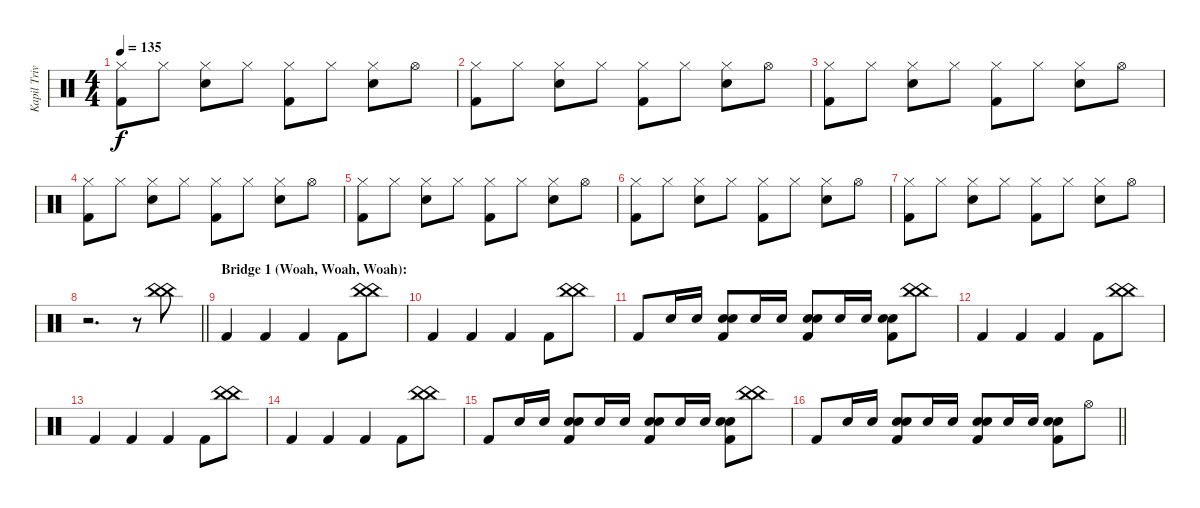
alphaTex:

\track ("Kapil Trivedi (Percussion)" "Kapil Triv") {instrument percussion}
\staff {score}
\articulation defaults
\ts (4 4)
\tempo 135
\clef neutral
\ks c
("Hi-Hat (closed)" "Kick (hit) 2").8{dy f} "Hi-Hat (closed)".8 ("Hi-Hat (closed)" "Snare (hit) 2").8 "Hi-Hat (closed)".8 ("Hi-Hat (closed)" "Kick (hit) 2").8 "Hi-Hat (closed)".8 ("Hi-Hat (closed)" "Snare (hit) 2").8 "Hi-Hat (open)".8 |
("Hi-Hat (closed)" "Kick (hit) 2").8 "Hi-Hat (closed)".8 ("Hi-Hat (closed)" "Snare (hit) 2").8 "Hi-Hat (closed)".8 ("Hi-Hat (closed)" "Kick (hit) 2").8 "Hi-Hat (closed)".8 ("Hi-Hat (closed)" "Snare (hit) 2").8 "Hi-Hat (open)".8 |
("Hi-Hat (closed)" "Kick (hit) 2").8 "Hi-Hat (closed)".8 ("Hi-Hat (closed)" "Snare (hit) 2").8 "Hi-Hat (closed)".8 ("Hi-Hat (closed)" "Kick (hit) 2").8 "Hi-Hat (closed)".8 ("Hi-Hat (closed)" "Snare (hit) 2").8 "Hi-Hat (open)".8 |
("Hi-Hat (closed)" "Kick (hit) 2").8 "Hi-Hat (closed)".8 ("Hi-Hat (closed)" "Snare (hit) 2").8 "Hi-Hat (closed)".8 ("Hi-Hat (closed)" "Kick (hit) 2").8 "Hi-Hat (closed)".8 ("Hi-Hat (closed)" "Snare (hit) 2").8 "Hi-Hat (open)".8 |
("Hi-Hat (closed)" "Kick (hit) 2").8 "Hi-Hat (closed)".8 ("Hi-Hat (closed)" "Snare (hit) 2").8 "Hi-Hat (closed)".8 ("Hi-Hat (closed)" "Kick (hit) 2").8 "Hi-Hat (closed)".8 ("Hi-Hat (closed)" "Snare (hit) 2").8 "Hi-Hat (open)".8 |
("Hi-Hat (closed)" "Kick (hit) 2").8 "Hi-Hat (closed)".8 ("Hi-Hat (closed)" "Snare (hit) 2").8 "Hi-Hat (closed)".8 ("Hi-Hat (closed)" "Kick (hit) 2").8 "Hi-Hat (closed)".8 ("Hi-Hat (closed)" "Snare (hit) 2").8 "Hi-Hat (open)".8 |
("Hi-Hat (closed)" "Kick (hit) 2").8 "Hi-Hat (closed)".8 ("Hi-Hat (closed)" "Snare (hit) 2").8 "Hi-Hat (closed)".8 ("Hi-Hat (closed)" "Kick (hit) 2").8 "Hi-Hat (closed)".8 ("Hi-Hat (closed)" "Snare (hit) 2").8 "Hi-Hat (open)".8 |
\barLineRight lightlight
r.2{d} r.8 ("China (hit)" "China (hit)").8 |
\section ("" "Bridge 1 (Woah, Woah, Woah): ")
"Kick (hit) 2".4 "Kick (hit) 2".4 "Kick (hit) 2".4 "Kick (hit) 2".8 ("China (hit)" "China (hit)").8 |
"Kick (hit) 2".4 "Kick (hit) 2".4 "Kick (hit) 2".4 "Kick (hit) 2".8 ("China (hit)" "China (hit)").8 |
"Kick (hit) 2".8 "Snare (hit) 2".16 "Snare (hit) 2".16 ("Snare (hit) 2" "Snare (hit) 2" "Kick (hit) 2").8 "Snare (hit) 2".16 "Snare (hit) 2".16 ("Snare (hit) 2" "Snare (hit) 2" "Kick (hit) 2").8 "Snare (hit) 2".16 "Snare (hit) 2".16 ("Snare (hit) 2" "Snare (hit) 2" "Kick (hit) 2").8 ("China (hit)" "China (hit)").8 |
"Kick (hit) 2".4 "Kick (hit) 2".4 "Kick (hit) 2".4 "Kick (hit) 2".8 ("China (hit)" "China (hit)").8 |
"Kick (hit) 2".4 "Kick (hit) 2".4 "Kick (hit) 2".4 "Kick (hit) 2".8 ("China (hit)" "China (hit)").8 |
"Kick (hit) 2".4 "Kick (hit) 2".4 "Kick (hit) 2".4 "Kick (hit) 2".8 ("China (hit)" "China (hit)").8 |
"Kick (hit) 2".8 "Snare (hit) 2".16 "Snare (hit) 2".16 ("Snare (hit) 2" "Snare (hit) 2" "Kick (hit) 2").8 "Snare (hit) 2".16 "Snare (hit) 2".16 ("Snare (hit) 2" "Snare (hit) 2" "Kick (hit) 2").8 "Snare (hit) 2".16 "Snare (hit) 2".16 ("Snare (hit) 2" "Snare (hit) 2" "Kick (hit) 2").8 ("China (hit)" "China (hit)").8 |
\barLineRight lightlight "Kick (hit) 2".8 "Snare (hit) 2".16 "Snare (hit) 2".16
("Snare (hit) 2" "Snare (hit) 2" "Kick (hit) 2").8 "Snare (hit) 2".16 "Snare (hit) 2".16 ("Snare (hit) 2" "Snare (hit) 2" "Kick (hit) 2").8 "Snare (hit) 2".16 "Snare (hit) 2".16 ("Snare (hit) 2" "Snare (hit) 2" "Kick (hit) 2").8 "Hi-Hat (open)".8
